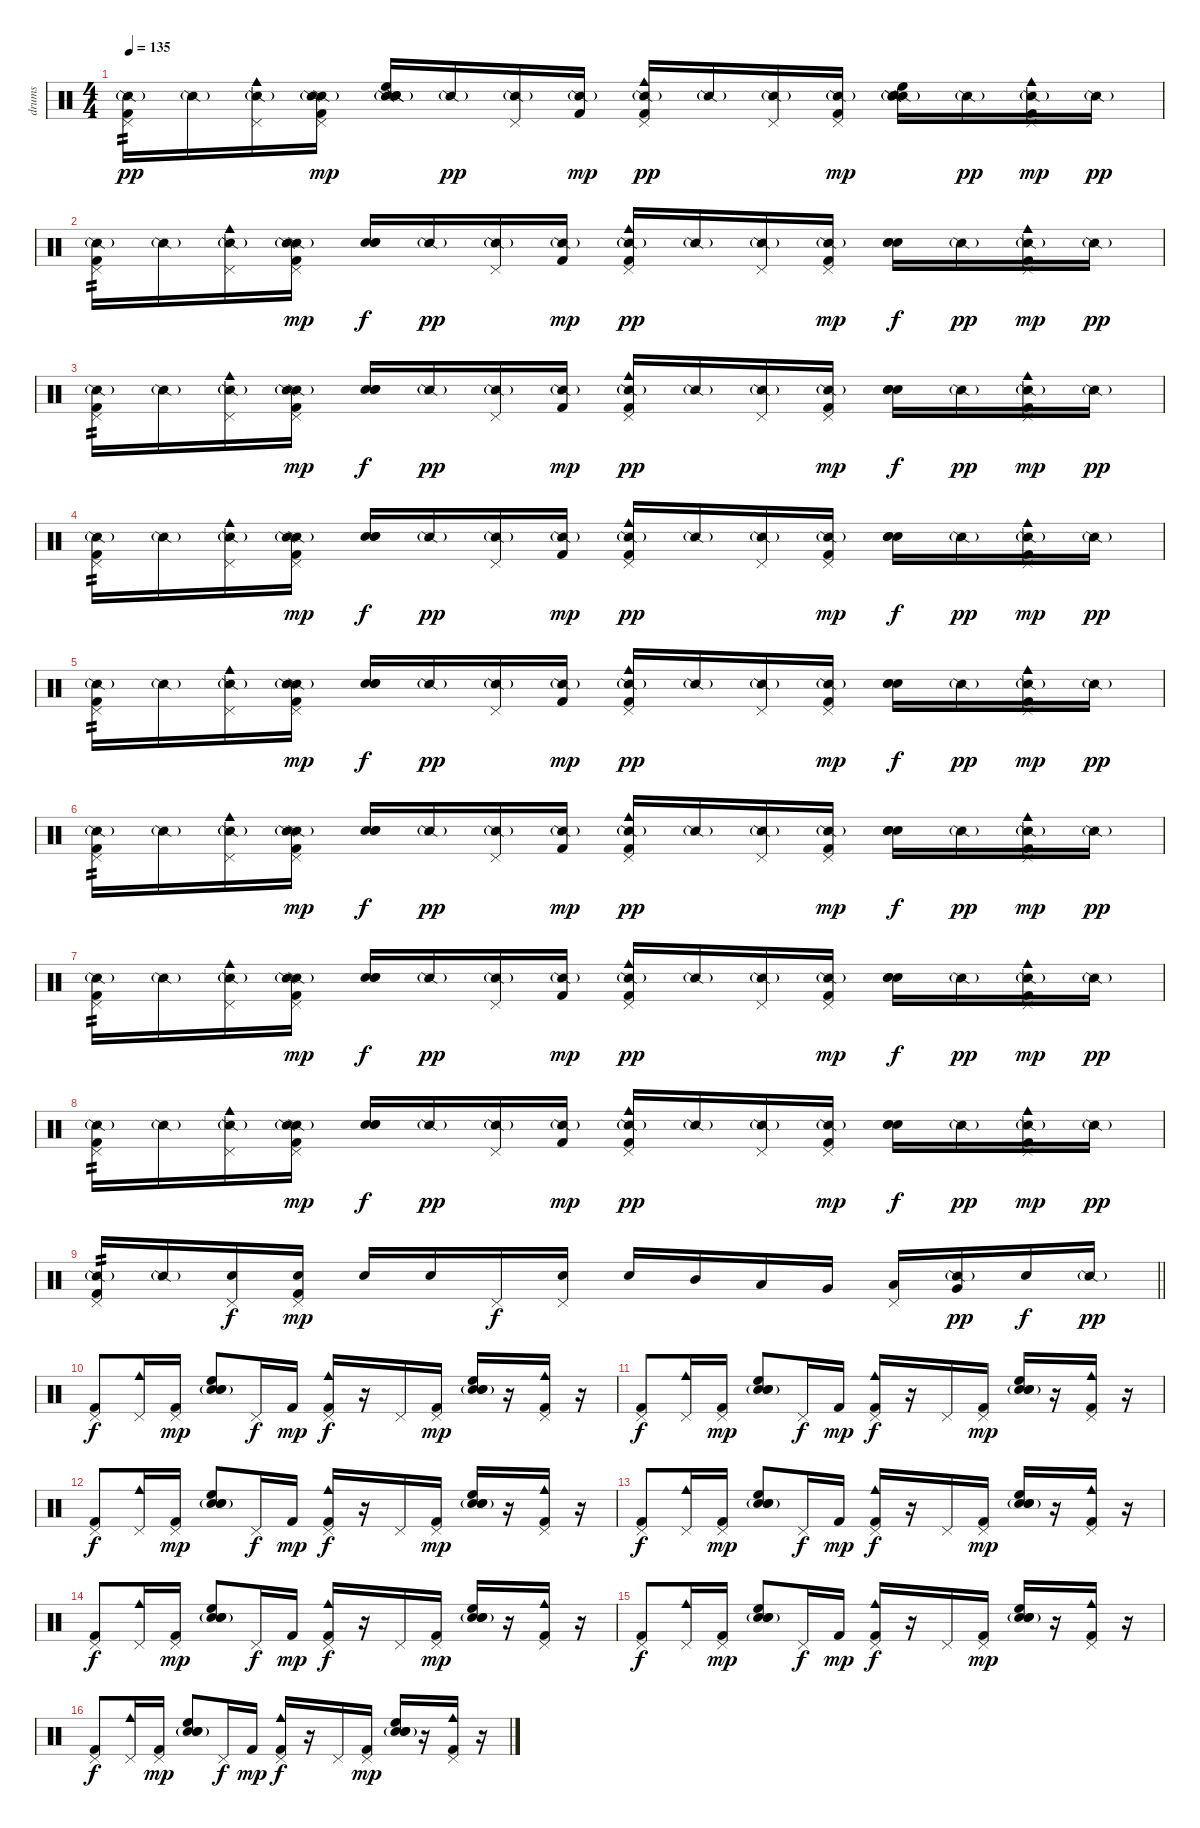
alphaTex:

\track ("drums" "drums") {instrument percussion}
\staff {score}
\articulation defaults
\ts (4 4)
\tempo 135
\clef neutral
\ks c
("Snare (side stick) 2"{g} "Pedal Hi-Hat (hit)" "Kick (hit) 2").16{tp 2 dy pp} "Snare (side stick) 2"{g}.16 ("Snare (side stick) 2"{g} "Cowbell medium (hit)" "Pedal Hi-Hat (hit)").16 ("Snare (side stick) 2"{g} "Snare (side stick) 2"{g} "Pedal Hi-Hat (hit)" "Kick (hit) 2").16{dy mp} ("Snare (side stick) 2" "Snare (side stick) 2" "Snare (side stick) 2" "Electric Snare (hit)"{g} "High Floor Tom (hit)").16 "Snare (side stick) 2"{g}.16{dy pp} ("Snare (side stick) 2"{g} "Pedal Hi-Hat (hit)").16 ("Snare (side stick) 2"{g} "Kick (hit) 2").16{dy mp} ("Snare (side stick) 2"{g} "Cowbell medium (hit)" "Pedal Hi-Hat (hit)" "Kick (hit) 2").16{dy pp} "Snare (side stick) 2"{g}.16 ("Snare (side stick) 2"{g} "Pedal Hi-Hat (hit)").16 ("Snare (side stick) 2"{g} "Pedal Hi-Hat (hit)" "Kick (hit) 2").16{dy mp} ("Snare (side stick) 2" "Snare (side stick) 2" "Snare (side stick) 2" "Electric Snare (hit)"{g} "High Floor Tom (hit)").16 "Snare (side stick) 2"{g}.16{dy pp} ("Snare (side stick) 2"{g} "Cowbell medium (hit)" "Pedal Hi-Hat (hit)" "Kick (hit) 2").16{dy mp} "Snare (side stick) 2"{g}.16{dy pp} |
("Snare (side stick) 2"{g} "Pedal Hi-Hat (hit)" "Kick (hit) 2").16{tp 2} "Snare (side stick) 2"{g}.16 ("Snare (side stick) 2"{g} "Cowbell medium (hit)" "Pedal Hi-Hat (hit)").16 ("Snare (side stick) 2"{g} "Snare (side stick) 2"{g} "Pedal Hi-Hat (hit)" "Kick (hit) 2").16{dy mp} ("Snare (hit) 2" "Snare (hit) 2" "Snare (hit) 2").16{dy f} "Snare (side stick) 2"{g}.16{dy pp} ("Snare (side stick) 2"{g} "Pedal Hi-Hat (hit)").16 ("Snare (side stick) 2"{g} "Kick (hit) 2").16{dy mp} ("Snare (side stick) 2"{g} "Cowbell medium (hit)" "Pedal Hi-Hat (hit)" "Kick (hit) 2").16{dy pp} "Snare (side stick) 2"{g}.16 ("Snare (side stick) 2"{g} "Pedal Hi-Hat (hit)").16 ("Snare (side stick) 2"{g} "Pedal Hi-Hat (hit)" "Kick (hit) 2").16{dy mp} ("Snare (hit) 2" "Snare (hit) 2" "Snare (hit) 2").16{dy f} "Snare (side stick) 2"{g}.16{dy pp} ("Snare (side stick) 2"{g} "Cowbell medium (hit)" "Pedal Hi-Hat (hit)" "Kick (hit) 2").16{dy mp} "Snare (side stick) 2"{g}.16{dy pp} |
("Snare (side stick) 2"{g} "Pedal Hi-Hat (hit)" "Kick (hit) 2").16{tp 2} "Snare (side stick) 2"{g}.16 ("Snare (side stick) 2"{g} "Cowbell medium (hit)" "Pedal Hi-Hat (hit)").16 ("Snare (side stick) 2"{g} "Snare (side stick) 2"{g} "Pedal Hi-Hat (hit)" "Kick (hit) 2").16{dy mp} ("Snare (hit) 2" "Snare (hit) 2" "Snare (hit) 2").16{dy f} "Snare (side stick) 2"{g}.16{dy pp} ("Snare (side stick) 2"{g} "Pedal Hi-Hat (hit)").16 ("Snare (side stick) 2"{g} "Kick (hit) 2").16{dy mp} ("Snare (side stick) 2"{g} "Cowbell medium (hit)" "Pedal Hi-Hat (hit)" "Kick (hit) 2").16{dy pp} "Snare (side stick) 2"{g}.16 ("Snare (side stick) 2"{g} "Pedal Hi-Hat (hit)").16 ("Snare (side stick) 2"{g} "Pedal Hi-Hat (hit)" "Kick (hit) 2").16{dy mp} ("Snare (hit) 2" "Snare (hit) 2" "Snare (hit) 2").16{dy f} "Snare (side stick) 2"{g}.16{dy pp} ("Snare (side stick) 2"{g} "Cowbell medium (hit)" "Pedal Hi-Hat (hit)" "Kick (hit) 2").16{dy mp} "Snare (side stick) 2"{g}.16{dy pp} |
("Snare (side stick) 2"{g} "Pedal Hi-Hat (hit)" "Kick (hit) 2").16{tp 2} "Snare (side stick) 2"{g}.16 ("Snare (side stick) 2"{g} "Cowbell medium (hit)" "Pedal Hi-Hat (hit)").16 ("Snare (side stick) 2"{g} "Snare (side stick) 2"{g} "Pedal Hi-Hat (hit)" "Kick (hit) 2").16{dy mp} ("Snare (hit) 2" "Snare (hit) 2" "Snare (hit) 2").16{dy f} "Snare (side stick) 2"{g}.16{dy pp} ("Snare (side stick) 2"{g} "Pedal Hi-Hat (hit)").16 ("Snare (side stick) 2"{g} "Kick (hit) 2").16{dy mp} ("Snare (side stick) 2"{g} "Cowbell medium (hit)" "Pedal Hi-Hat (hit)" "Kick (hit) 2").16{dy pp} "Snare (side stick) 2"{g}.16 ("Snare (side stick) 2"{g} "Pedal Hi-Hat (hit)").16 ("Snare (side stick) 2"{g} "Pedal Hi-Hat (hit)" "Kick (hit) 2").16{dy mp} ("Snare (hit) 2" "Snare (hit) 2" "Snare (hit) 2").16{dy f} "Snare (side stick) 2"{g}.16{dy pp} ("Snare (side stick) 2"{g} "Cowbell medium (hit)" "Pedal Hi-Hat (hit)" "Kick (hit) 2").16{dy mp} "Snare (side stick) 2"{g}.16{dy pp} |
("Snare (side stick) 2"{g} "Pedal Hi-Hat (hit)" "Kick (hit) 2").16{tp 2} "Snare (side stick) 2"{g}.16 ("Snare (side stick) 2"{g} "Cowbell medium (hit)" "Pedal Hi-Hat (hit)").16 ("Snare (side stick) 2"{g} "Snare (side stick) 2"{g} "Pedal Hi-Hat (hit)" "Kick (hit) 2").16{dy mp} ("Snare (hit) 2" "Snare (hit) 2" "Snare (hit) 2").16{dy f} "Snare (side stick) 2"{g}.16{dy pp} ("Snare (side stick) 2"{g} "Pedal Hi-Hat (hit)").16 ("Snare (side stick) 2"{g} "Kick (hit) 2").16{dy mp} ("Snare (side stick) 2"{g} "Cowbell medium (hit)" "Pedal Hi-Hat (hit)" "Kick (hit) 2").16{dy pp} "Snare (side stick) 2"{g}.16 ("Snare (side stick) 2"{g} "Pedal Hi-Hat (hit)").16 ("Snare (side stick) 2"{g} "Pedal Hi-Hat (hit)" "Kick (hit) 2").16{dy mp} ("Snare (hit) 2" "Snare (hit) 2" "Snare (hit) 2").16{dy f} "Snare (side stick) 2"{g}.16{dy pp} ("Snare (side stick) 2"{g} "Cowbell medium (hit)" "Pedal Hi-Hat (hit)" "Kick (hit) 2").16{dy mp} "Snare (side stick) 2"{g}.16{dy pp} |
("Snare (side stick) 2"{g} "Pedal Hi-Hat (hit)" "Kick (hit) 2").16{tp 2} "Snare (side stick) 2"{g}.16 ("Snare (side stick) 2"{g} "Cowbell medium (hit)" "Pedal Hi-Hat (hit)").16 ("Snare (side stick) 2"{g} "Snare (side stick) 2"{g} "Pedal Hi-Hat (hit)" "Kick (hit) 2").16{dy mp} ("Snare (hit) 2" "Snare (hit) 2" "Snare (hit) 2").16{dy f} "Snare (side stick) 2"{g}.16{dy pp} ("Snare (side stick) 2"{g} "Pedal Hi-Hat (hit)").16 ("Snare (side stick) 2"{g} "Kick (hit) 2").16{dy mp} ("Snare (side stick) 2"{g} "Cowbell medium (hit)" "Pedal Hi-Hat (hit)" "Kick (hit) 2").16{dy pp} "Snare (side stick) 2"{g}.16 ("Snare (side stick) 2"{g} "Pedal Hi-Hat (hit)").16 ("Snare (side stick) 2"{g} "Pedal Hi-Hat (hit)" "Kick (hit) 2").16{dy mp} ("Snare (hit) 2" "Snare (hit) 2" "Snare (hit) 2").16{dy f} "Snare (side stick) 2"{g}.16{dy pp} ("Snare (side stick) 2"{g} "Cowbell medium (hit)" "Pedal Hi-Hat (hit)" "Kick (hit) 2").16{dy mp} "Snare (side stick) 2"{g}.16{dy pp} |
("Snare (side stick) 2"{g} "Pedal Hi-Hat (hit)" "Kick (hit) 2").16{tp 2} "Snare (side stick) 2"{g}.16 ("Snare (side stick) 2"{g} "Cowbell medium (hit)" "Pedal Hi-Hat (hit)").16 ("Snare (side stick) 2"{g} "Snare (side stick) 2"{g} "Pedal Hi-Hat (hit)" "Kick (hit) 2").16{dy mp} ("Snare (hit) 2" "Snare (hit) 2" "Snare (hit) 2").16{dy f} "Snare (side stick) 2"{g}.16{dy pp} ("Snare (side stick) 2"{g} "Pedal Hi-Hat (hit)").16 ("Snare (side stick) 2"{g} "Kick (hit) 2").16{dy mp} ("Snare (side stick) 2"{g} "Cowbell medium (hit)" "Pedal Hi-Hat (hit)" "Kick (hit) 2").16{dy pp} "Snare (side stick) 2"{g}.16 ("Snare (side stick) 2"{g} "Pedal Hi-Hat (hit)").16 ("Snare (side stick) 2"{g} "Pedal Hi-Hat (hit)" "Kick (hit) 2").16{dy mp} ("Snare (hit) 2" "Snare (hit) 2" "Snare (hit) 2").16{dy f} "Snare (side stick) 2"{g}.16{dy pp} ("Snare (side stick) 2"{g} "Cowbell medium (hit)" "Pedal Hi-Hat (hit)" "Kick (hit) 2").16{dy mp} "Snare (side stick) 2"{g}.16{dy pp} |
("Snare (side stick) 2"{g} "Pedal Hi-Hat (hit)" "Kick (hit) 2").16{tp 2} "Snare (side stick) 2"{g}.16 ("Snare (side stick) 2"{g} "Cowbell medium (hit)" "Pedal Hi-Hat (hit)").16 ("Snare (side stick) 2"{g} "Snare (side stick) 2"{g} "Pedal Hi-Hat (hit)" "Kick (hit) 2").16{dy mp} ("Snare (hit) 2" "Snare (hit) 2" "Snare (hit) 2").16{dy f} "Snare (side stick) 2"{g}.16{dy pp} ("Snare (side stick) 2"{g} "Pedal Hi-Hat (hit)").16 ("Snare (side stick) 2"{g} "Kick (hit) 2").16{dy mp} ("Snare (side stick) 2"{g} "Cowbell medium (hit)" "Pedal Hi-Hat (hit)" "Kick (hit) 2").16{dy pp} "Snare (side stick) 2"{g}.16 ("Snare (side stick) 2"{g} "Pedal Hi-Hat (hit)").16 ("Snare (side stick) 2"{g} "Pedal Hi-Hat (hit)" "Kick (hit) 2").16{dy mp} ("Snare (hit) 2" "Snare (hit) 2" "Snare (hit) 2").16{dy f} "Snare (side stick) 2"{g}.16{dy pp} ("Snare (side stick) 2"{g} "Cowbell medium (hit)" "Pedal Hi-Hat (hit)" "Kick (hit) 2").16{dy mp} "Snare (side stick) 2"{g}.16{dy pp} |
\barLineRight lightlight
("Snare (side stick) 2"{g} "Pedal Hi-Hat (hit)" "Kick (hit) 2").16{tp 2} "Snare (side stick) 2"{g}.16 ("Snare (hit) 2" "Pedal Hi-Hat (hit)").16{dy f} ("Snare (hit) 2" "Pedal Hi-Hat (hit)" "Kick (hit) 2").16{dy mp} "Snare (hit) 2".16 "Snare (hit) 2".16 "Pedal Hi-Hat (hit)".16{dy f} ("Snare (hit) 2" "Pedal Hi-Hat (hit)").16 "Snare (hit) 2".16 "Mid Tom (hit)".16 "Low Tom (hit)".16 "Very Low Tom (hit)".16 ("Low Tom (hit)" "Pedal Hi-Hat (hit)").16 ("Snare (side stick) 2"{g} "Very Low Tom (hit)").16{dy pp} "Snare (hit) 2".16{dy f} "Snare (side stick) 2"{g}.16{dy pp} |
("Pedal Hi-Hat (hit)" "Kick (hit) 2").8{dy f} ("Cowbell medium (hit)" "Pedal Hi-Hat (hit)").16 ("Pedal Hi-Hat (hit)" "Kick (hit) 2").16{dy mp} ("Snare (hit) 2"{g} "Hand Clap (hit)"{g} "High Floor Tom (hit)" "Snare (hit) 2").8 "Pedal Hi-Hat (hit)".16{dy f} "Kick (hit) 2".16{dy mp} ("Cowbell medium (hit)" "Pedal Hi-Hat (hit)" "Kick (hit) 2").16{dy f} r.16 "Pedal Hi-Hat (hit)".16 ("Pedal Hi-Hat (hit)" "Kick (hit) 2").16{dy mp} ("Snare (hit) 2"{g} "Hand Clap (hit)"{g} "High Floor Tom (hit)" "Snare (hit) 2").16 r.16 ("Cowbell medium (hit)" "Pedal Hi-Hat (hit)" "Kick (hit) 2").16 r.16 |
("Pedal Hi-Hat (hit)" "Kick (hit) 2").8{dy f} ("Cowbell medium (hit)" "Pedal Hi-Hat (hit)").16 ("Pedal Hi-Hat (hit)" "Kick (hit) 2").16{dy mp} ("Snare (hit) 2"{g} "Hand Clap (hit)"{g} "High Floor Tom (hit)" "Snare (hit) 2").8 "Pedal Hi-Hat (hit)".16{dy f} "Kick (hit) 2".16{dy mp} ("Cowbell medium (hit)" "Pedal Hi-Hat (hit)" "Kick (hit) 2").16{dy f} r.16 "Pedal Hi-Hat (hit)".16 ("Pedal Hi-Hat (hit)" "Kick (hit) 2").16{dy mp} ("Snare (hit) 2"{g} "Hand Clap (hit)"{g} "High Floor Tom (hit)" "Snare (hit) 2").16 r.16 ("Cowbell medium (hit)" "Pedal Hi-Hat (hit)" "Kick (hit) 2").16 r.16 |
("Pedal Hi-Hat (hit)" "Kick (hit) 2").8{dy f} ("Cowbell medium (hit)" "Pedal Hi-Hat (hit)").16 ("Pedal Hi-Hat (hit)" "Kick (hit) 2").16{dy mp} ("Snare (hit) 2"{g} "Hand Clap (hit)"{g} "High Floor Tom (hit)" "Snare (hit) 2").8 "Pedal Hi-Hat (hit)".16{dy f} "Kick (hit) 2".16{dy mp} ("Cowbell medium (hit)" "Pedal Hi-Hat (hit)" "Kick (hit) 2").16{dy f} r.16 "Pedal Hi-Hat (hit)".16 ("Pedal Hi-Hat (hit)" "Kick (hit) 2").16{dy mp} ("Snare (hit) 2"{g} "Hand Clap (hit)"{g} "High Floor Tom (hit)" "Snare (hit) 2").16 r.16 ("Cowbell medium (hit)" "Pedal Hi-Hat (hit)" "Kick (hit) 2").16 r.16 |
("Pedal Hi-Hat (hit)" "Kick (hit) 2").8{dy f} ("Cowbell medium (hit)" "Pedal Hi-Hat (hit)").16 ("Pedal Hi-Hat (hit)" "Kick (hit) 2").16{dy mp} ("Snare (hit) 2"{g} "Hand Clap (hit)"{g} "High Floor Tom (hit)" "Snare (hit) 2").8 "Pedal Hi-Hat (hit)".16{dy f} "Kick (hit) 2".16{dy mp} ("Cowbell medium (hit)" "Pedal Hi-Hat (hit)" "Kick (hit) 2").16{dy f} r.16 "Pedal Hi-Hat (hit)".16 ("Pedal Hi-Hat (hit)" "Kick (hit) 2").16{dy mp} ("Snare (hit) 2"{g} "Hand Clap (hit)"{g} "High Floor Tom (hit)" "Snare (hit) 2").16 r.16 ("Cowbell medium (hit)" "Pedal Hi-Hat (hit)" "Kick (hit) 2").16 r.16 |
("Pedal Hi-Hat (hit)" "Kick (hit) 2").8{dy f} ("Cowbell medium (hit)" "Pedal Hi-Hat (hit)").16 ("Pedal Hi-Hat (hit)" "Kick (hit) 2").16{dy mp} ("Snare (hit) 2"{g} "Hand Clap (hit)"{g} "High Floor Tom (hit)" "Snare (hit) 2").8 "Pedal Hi-Hat (hit)".16{dy f} "Kick (hit) 2".16{dy mp} ("Cowbell medium (hit)" "Pedal Hi-Hat (hit)" "Kick (hit) 2").16{dy f} r.16 "Pedal Hi-Hat (hit)".16 ("Pedal Hi-Hat (hit)" "Kick (hit) 2").16{dy mp} ("Snare (hit) 2"{g} "Hand Clap (hit)"{g} "High Floor Tom (hit)" "Snare (hit) 2").16 r.16 ("Cowbell medium (hit)" "Pedal Hi-Hat (hit)" "Kick (hit) 2").16 r.16 |
("Pedal Hi-Hat (hit)" "Kick (hit) 2").8{dy f} ("Cowbell medium (hit)" "Pedal Hi-Hat (hit)").16 ("Pedal Hi-Hat (hit)" "Kick (hit) 2").16{dy mp} ("Snare (hit) 2"{g} "Hand Clap (hit)"{g} "High Floor Tom (hit)" "Snare (hit) 2").8 "Pedal Hi-Hat (hit)".16{dy f} "Kick (hit) 2".16{dy mp} ("Cowbell medium (hit)" "Pedal Hi-Hat (hit)" "Kick (hit) 2").16{dy f} r.16 "Pedal Hi-Hat (hit)".16 ("Pedal Hi-Hat (hit)" "Kick (hit) 2").16{dy mp} ("Snare (hit) 2"{g} "Hand Clap (hit)"{g} "High Floor Tom (hit)" "Snare (hit) 2").16 r.16 ("Cowbell medium (hit)" "Pedal Hi-Hat (hit)" "Kick (hit) 2").16 r.16 |
("Pedal Hi-Hat (hit)" "Kick (hit) 2").8{dy f} ("Cowbell medium (hit)" "Pedal Hi-Hat (hit)").16 ("Pedal Hi-Hat (hit)" "Kick (hit) 2").16{dy mp} ("Snare (hit) 2"{g} "Hand Clap (hit)"{g} "High Floor Tom (hit)" "Snare (hit) 2").8 "Pedal Hi-Hat (hit)".16{dy f} "Kick (hit) 2".16{dy mp} ("Cowbell medium (hit)" "Pedal Hi-Hat (hit)" "Kick (hit) 2").16{dy f} r.16 "Pedal Hi-Hat (hit)".16 ("Pedal Hi-Hat (hit)" "Kick (hit) 2").16{dy mp} ("Snare (hit) 2"{g} "Hand Clap (hit)"{g} "High Floor Tom (hit)" "Snare (hit) 2").16 r.16 ("Cowbell medium (hit)" "Pedal Hi-Hat (hit)" "Kick (hit) 2").16 r.16
